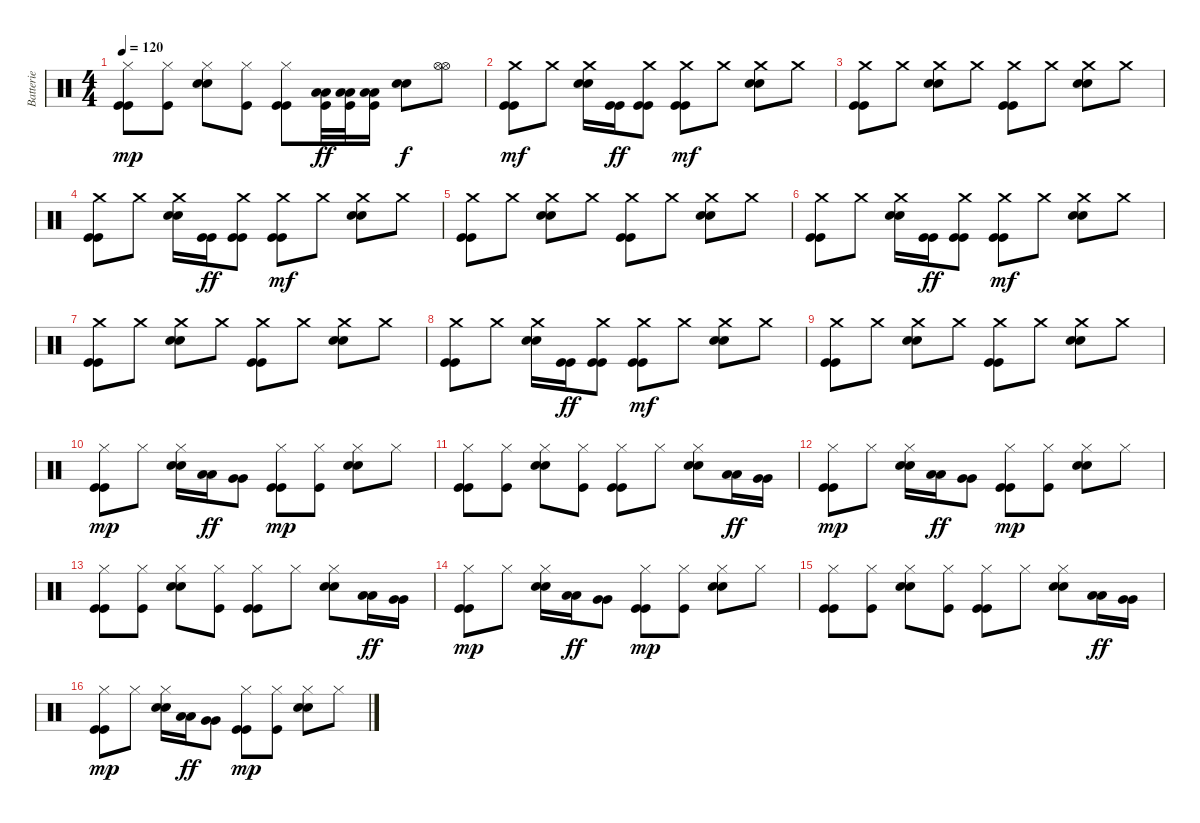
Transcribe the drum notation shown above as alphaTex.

\track ("Batterie" "Batterie") {instrument percussion}
\staff {score}
\articulation defaults
\ts (4 4)
\tempo 120
\clef neutral
\ks c
("Hi-Hat (closed)" "Kick (hit)" "Kick (hit)").8{dy mp} ("Hi-Hat (closed)" "Kick (hit)").8 ("Hi-Hat (closed)" "Electric Snare (hit)" "Electric Snare (hit)").8 ("Hi-Hat (closed)" "Kick (hit)").8 ("Hi-Hat (closed)" "Kick (hit)" "Kick (hit)").8 ("Low Tom (hit)" "Low Tom (hit)" "Kick (hit)").32{dy ff} ("Low Floor Tom (hit)" "Low Floor Tom (hit)" "Kick (hit)").32 ("Low Floor Tom (hit)" "Low Tom (hit)" "Kick (hit)").16 ("Electric Snare (hit)" "Electric Snare (hit)").8{dy f} ("Hi-Hat (open)" "Hi-Hat (open)").8 |
("Crash medium (hit)" "Kick (hit)" "Kick (hit)").8{dy mf} "Crash medium (hit)".8 ("Crash medium (hit)" "Electric Snare (hit)" "Electric Snare (hit)").16 ("Kick (hit)" "Kick (hit)").16{dy ff} ("Crash medium (hit)" "Kick (hit)" "Kick (hit)").8 ("Crash medium (hit)" "Kick (hit)" "Kick (hit)").8{dy mf} "Crash medium (hit)".8 ("Crash medium (hit)" "Electric Snare (hit)" "Electric Snare (hit)").8 "Crash medium (hit)".8 |
("Crash medium (hit)" "Kick (hit)" "Kick (hit)").8 "Crash medium (hit)".8 ("Crash medium (hit)" "Electric Snare (hit)" "Electric Snare (hit)").8 "Crash medium (hit)".8 ("Crash medium (hit)" "Kick (hit)" "Kick (hit)").8 "Crash medium (hit)".8 ("Crash medium (hit)" "Electric Snare (hit)" "Electric Snare (hit)").8 "Crash medium (hit)".8 |
("Crash medium (hit)" "Kick (hit)" "Kick (hit)").8 "Crash medium (hit)".8 ("Crash medium (hit)" "Electric Snare (hit)" "Electric Snare (hit)").16 ("Kick (hit)" "Kick (hit)").16{dy ff} ("Crash medium (hit)" "Kick (hit)" "Kick (hit)").8 ("Crash medium (hit)" "Kick (hit)" "Kick (hit)").8{dy mf} "Crash medium (hit)".8 ("Crash medium (hit)" "Electric Snare (hit)" "Electric Snare (hit)").8 "Crash medium (hit)".8 |
("Crash medium (hit)" "Kick (hit)" "Kick (hit)").8 "Crash medium (hit)".8 ("Crash medium (hit)" "Electric Snare (hit)" "Electric Snare (hit)").8 "Crash medium (hit)".8 ("Crash medium (hit)" "Kick (hit)" "Kick (hit)").8 "Crash medium (hit)".8 ("Crash medium (hit)" "Electric Snare (hit)" "Electric Snare (hit)").8 "Crash medium (hit)".8 |
("Crash medium (hit)" "Kick (hit)" "Kick (hit)").8 "Crash medium (hit)".8 ("Crash medium (hit)" "Electric Snare (hit)" "Electric Snare (hit)").16 ("Kick (hit)" "Kick (hit)").16{dy ff} ("Crash medium (hit)" "Kick (hit)" "Kick (hit)").8 ("Crash medium (hit)" "Kick (hit)" "Kick (hit)").8{dy mf} "Crash medium (hit)".8 ("Crash medium (hit)" "Electric Snare (hit)" "Electric Snare (hit)").8 "Crash medium (hit)".8 |
("Crash medium (hit)" "Kick (hit)" "Kick (hit)").8 "Crash medium (hit)".8 ("Crash medium (hit)" "Electric Snare (hit)" "Electric Snare (hit)").8 "Crash medium (hit)".8 ("Crash medium (hit)" "Kick (hit)" "Kick (hit)").8 "Crash medium (hit)".8 ("Crash medium (hit)" "Electric Snare (hit)" "Electric Snare (hit)").8 "Crash medium (hit)".8 |
("Crash medium (hit)" "Kick (hit)" "Kick (hit)").8 "Crash medium (hit)".8 ("Crash medium (hit)" "Electric Snare (hit)" "Electric Snare (hit)").16 ("Kick (hit)" "Kick (hit)").16{dy ff} ("Crash medium (hit)" "Kick (hit)" "Kick (hit)").8 ("Crash medium (hit)" "Kick (hit)" "Kick (hit)").8{dy mf} "Crash medium (hit)".8 ("Crash medium (hit)" "Electric Snare (hit)" "Electric Snare (hit)").8 "Crash medium (hit)".8 |
("Crash medium (hit)" "Kick (hit)" "Kick (hit)").8 "Crash medium (hit)".8 ("Crash medium (hit)" "Electric Snare (hit)" "Electric Snare (hit)").8 "Crash medium (hit)".8 ("Crash medium (hit)" "Kick (hit)" "Kick (hit)").8 "Crash medium (hit)".8 ("Crash medium (hit)" "Electric Snare (hit)" "Electric Snare (hit)").8 "Crash medium (hit)".8 |
("Hi-Hat (closed)" "Kick (hit)" "Kick (hit)").8{dy mp} "Hi-Hat (closed)".8 ("Hi-Hat (closed)" "Electric Snare (hit)" "Electric Snare (hit)").16 ("Low Tom (hit)" "Low Tom (hit)").16{dy ff} ("Very Low Tom (hit)" "Very Low Tom (hit)").8 ("Hi-Hat (closed)" "Kick (hit)" "Kick (hit)").8{dy mp} ("Hi-Hat (closed)" "Kick (hit)").8 ("Hi-Hat (closed)" "Electric Snare (hit)" "Electric Snare (hit)").8 "Hi-Hat (closed)".8 |
("Hi-Hat (closed)" "Kick (hit)" "Kick (hit)").8 ("Hi-Hat (closed)" "Kick (hit)").8 ("Hi-Hat (closed)" "Electric Snare (hit)" "Electric Snare (hit)").8 ("Hi-Hat (closed)" "Kick (hit)").8 ("Hi-Hat (closed)" "Kick (hit)" "Kick (hit)").8 "Hi-Hat (closed)".8 ("Hi-Hat (closed)" "Electric Snare (hit)" "Electric Snare (hit)").8 ("Low Tom (hit)" "Low Tom (hit)").16{dy ff} ("Very Low Tom (hit)" "Very Low Tom (hit)").16 |
("Hi-Hat (closed)" "Kick (hit)" "Kick (hit)").8{dy mp} "Hi-Hat (closed)".8 ("Hi-Hat (closed)" "Electric Snare (hit)" "Electric Snare (hit)").16 ("Low Tom (hit)" "Low Tom (hit)").16{dy ff} ("Very Low Tom (hit)" "Very Low Tom (hit)").8 ("Hi-Hat (closed)" "Kick (hit)" "Kick (hit)").8{dy mp} ("Hi-Hat (closed)" "Kick (hit)").8 ("Hi-Hat (closed)" "Electric Snare (hit)" "Electric Snare (hit)").8 "Hi-Hat (closed)".8 |
("Hi-Hat (closed)" "Kick (hit)" "Kick (hit)").8 ("Hi-Hat (closed)" "Kick (hit)").8 ("Hi-Hat (closed)" "Electric Snare (hit)" "Electric Snare (hit)").8 ("Hi-Hat (closed)" "Kick (hit)").8 ("Hi-Hat (closed)" "Kick (hit)" "Kick (hit)").8 "Hi-Hat (closed)".8 ("Hi-Hat (closed)" "Electric Snare (hit)" "Electric Snare (hit)").8 ("Low Tom (hit)" "Low Tom (hit)").16{dy ff} ("Very Low Tom (hit)" "Very Low Tom (hit)").16 |
("Hi-Hat (closed)" "Kick (hit)" "Kick (hit)").8{dy mp} "Hi-Hat (closed)".8 ("Hi-Hat (closed)" "Electric Snare (hit)" "Electric Snare (hit)").16 ("Low Tom (hit)" "Low Tom (hit)").16{dy ff} ("Very Low Tom (hit)" "Very Low Tom (hit)").8 ("Hi-Hat (closed)" "Kick (hit)" "Kick (hit)").8{dy mp} ("Hi-Hat (closed)" "Kick (hit)").8 ("Hi-Hat (closed)" "Electric Snare (hit)" "Electric Snare (hit)").8 "Hi-Hat (closed)".8 |
("Hi-Hat (closed)" "Kick (hit)" "Kick (hit)").8 ("Hi-Hat (closed)" "Kick (hit)").8 ("Hi-Hat (closed)" "Electric Snare (hit)" "Electric Snare (hit)").8 ("Hi-Hat (closed)" "Kick (hit)").8 ("Hi-Hat (closed)" "Kick (hit)" "Kick (hit)").8 "Hi-Hat (closed)".8 ("Hi-Hat (closed)" "Electric Snare (hit)" "Electric Snare (hit)").8 ("Low Tom (hit)" "Low Tom (hit)").16{dy ff} ("Very Low Tom (hit)" "Very Low Tom (hit)").16 |
("Hi-Hat (closed)" "Kick (hit)" "Kick (hit)").8{dy mp} "Hi-Hat (closed)".8 ("Hi-Hat (closed)" "Electric Snare (hit)" "Electric Snare (hit)").16 ("Low Tom (hit)" "Low Tom (hit)").16{dy ff} ("Very Low Tom (hit)" "Very Low Tom (hit)").8 ("Hi-Hat (closed)" "Kick (hit)" "Kick (hit)").8{dy mp} ("Hi-Hat (closed)" "Kick (hit)").8 ("Hi-Hat (closed)" "Electric Snare (hit)" "Electric Snare (hit)").8 "Hi-Hat (closed)".8
